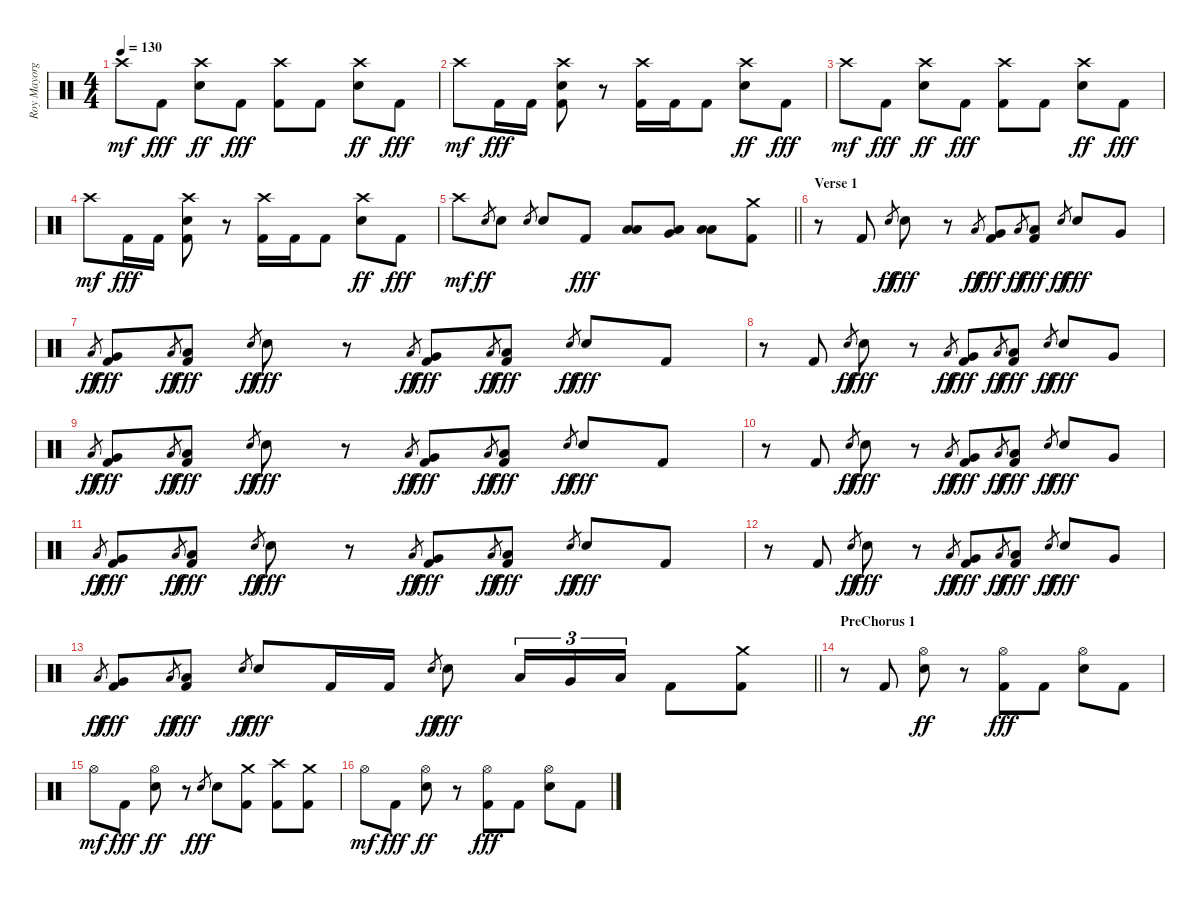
\track ("Roy Mayorga" "Roy Mayorg") {instrument percussion}
\staff {score}
\articulation defaults
\ts (4 4)
\tempo 130
\clef neutral
\ks c "Crash high (hit)".8{dy mf} "Kick (hit) 2".8{dy fff}
("Crash high (hit)" "Electric Snare (hit)").8{dy ff} "Kick (hit) 2".8{dy fff} ("Crash high (hit)" "Kick (hit) 2").8 "Kick (hit) 2".8 ("Crash high (hit)" "Electric Snare (hit)").8{dy ff} "Kick (hit) 2".8{dy fff} |
"Crash high (hit)".8{dy mf} "Kick (hit) 2".16{dy fff} "Kick (hit) 2".16 ("Crash high (hit)" "Electric Snare (hit)" "Kick (hit) 2").8 r.8 ("Crash high (hit)" "Kick (hit) 2").16 "Kick (hit) 2".16 "Kick (hit) 2".8 ("Crash high (hit)" "Electric Snare (hit)").8{dy ff} "Kick (hit) 2".8{dy fff} |
"Crash high (hit)".8{dy mf} "Kick (hit) 2".8{dy fff} ("Crash high (hit)" "Electric Snare (hit)").8{dy ff} "Kick (hit) 2".8{dy fff} ("Crash high (hit)" "Kick (hit) 2").8 "Kick (hit) 2".8 ("Crash high (hit)" "Electric Snare (hit)").8{dy ff} "Kick (hit) 2".8{dy fff} |
"Crash high (hit)".8{dy mf} "Kick (hit) 2".16{dy fff} "Kick (hit) 2".16 ("Crash high (hit)" "Electric Snare (hit)" "Kick (hit) 2").8 r.8 ("Crash high (hit)" "Kick (hit) 2").16 "Kick (hit) 2".16 "Kick (hit) 2".8 ("Crash high (hit)" "Electric Snare (hit)").8{dy ff} "Kick (hit) 2".8{dy fff} |
\barLineRight lightlight "Crash high (hit)".8{dy mf} "Electric Snare (hit)".8{gr dy ff} "Electric Snare (hit)".8 "Electric Snare (hit)".8{gr} "Electric Snare (hit)".8 "Kick (hit) 2".8{dy fff}
("Low Tom (hit)" "Low Floor Tom (hit)").8 ("Very Low Tom (hit)" "Low Floor Tom (hit)").8 ("Low Floor Tom (hit)" "Low Floor Tom (hit)").8 ("Crash medium (hit)" "Kick (hit) 2").8 |
\section ("" "Verse 1")
r.8 "Kick (hit) 2".8 "Electric Snare (hit)".8{gr dy ff} "Electric Snare (hit)".8{dy fff} r.8 "Low Floor Tom (hit)".8{gr dy ff} ("Very Low Tom (hit)" "Kick (hit) 2").8{dy fff} "Low Floor Tom (hit)".8{gr dy ff} ("Low Floor Tom (hit)" "Kick (hit) 2").8{dy fff} "Electric Snare (hit)".8{gr dy ff} "Electric Snare (hit)".8{dy fff} "Very Low Tom (hit)".8 |
"Low Floor Tom (hit)".8{gr dy ff} ("Very Low Tom (hit)" "Kick (hit) 2").8{dy fff} "Low Floor Tom (hit)".8{gr dy ff} ("Low Floor Tom (hit)" "Kick (hit) 2").8{dy fff} "Electric Snare (hit)".8{gr dy ff} "Electric Snare (hit)".8{dy fff} r.8 "Low Floor Tom (hit)".8{gr dy ff} ("Very Low Tom (hit)" "Kick (hit) 2").8{dy fff} "Low Floor Tom (hit)".8{gr dy ff} ("Low Floor Tom (hit)" "Kick (hit) 2").8{dy fff} "Electric Snare (hit)".8{gr dy ff} "Electric Snare (hit)".8{dy fff} "Kick (hit) 2".8 |
r.8 "Kick (hit) 2".8 "Electric Snare (hit)".8{gr dy ff} "Electric Snare (hit)".8{dy fff} r.8 "Low Floor Tom (hit)".8{gr dy ff} ("Very Low Tom (hit)" "Kick (hit) 2").8{dy fff} "Low Floor Tom (hit)".8{gr dy ff} ("Low Floor Tom (hit)" "Kick (hit) 2").8{dy fff} "Electric Snare (hit)".8{gr dy ff} "Electric Snare (hit)".8{dy fff} "Very Low Tom (hit)".8 |
"Low Floor Tom (hit)".8{gr dy ff} ("Very Low Tom (hit)" "Kick (hit) 2").8{dy fff} "Low Floor Tom (hit)".8{gr dy ff} ("Low Floor Tom (hit)" "Kick (hit) 2").8{dy fff} "Electric Snare (hit)".8{gr dy ff} "Electric Snare (hit)".8{dy fff} r.8 "Low Floor Tom (hit)".8{gr dy ff} ("Very Low Tom (hit)" "Kick (hit) 2").8{dy fff} "Low Floor Tom (hit)".8{gr dy ff} ("Low Floor Tom (hit)" "Kick (hit) 2").8{dy fff} "Electric Snare (hit)".8{gr dy ff} "Electric Snare (hit)".8{dy fff} "Kick (hit) 2".8 |
r.8 "Kick (hit) 2".8 "Electric Snare (hit)".8{gr dy ff} "Electric Snare (hit)".8{dy fff} r.8 "Low Floor Tom (hit)".8{gr dy ff} ("Very Low Tom (hit)" "Kick (hit) 2").8{dy fff} "Low Floor Tom (hit)".8{gr dy ff} ("Low Floor Tom (hit)" "Kick (hit) 2").8{dy fff} "Electric Snare (hit)".8{gr dy ff} "Electric Snare (hit)".8{dy fff} "Very Low Tom (hit)".8 |
"Low Floor Tom (hit)".8{gr dy ff} ("Very Low Tom (hit)" "Kick (hit) 2").8{dy fff} "Low Floor Tom (hit)".8{gr dy ff} ("Low Floor Tom (hit)" "Kick (hit) 2").8{dy fff} "Electric Snare (hit)".8{gr dy ff} "Electric Snare (hit)".8{dy fff} r.8 "Low Floor Tom (hit)".8{gr dy ff} ("Very Low Tom (hit)" "Kick (hit) 2").8{dy fff} "Low Floor Tom (hit)".8{gr dy ff} ("Low Floor Tom (hit)" "Kick (hit) 2").8{dy fff} "Electric Snare (hit)".8{gr dy ff} "Electric Snare (hit)".8{dy fff} "Kick (hit) 2".8 |
r.8 "Kick (hit) 2".8 "Electric Snare (hit)".8{gr dy ff} "Electric Snare (hit)".8{dy fff} r.8 "Low Floor Tom (hit)".8{gr dy ff} ("Very Low Tom (hit)" "Kick (hit) 2").8{dy fff} "Low Floor Tom (hit)".8{gr dy ff} ("Low Floor Tom (hit)" "Kick (hit) 2").8{dy fff} "Electric Snare (hit)".8{gr dy ff} "Electric Snare (hit)".8{dy fff} "Very Low Tom (hit)".8 |
\barLineRight lightlight "Low Floor Tom (hit)".8{gr dy ff}
("Very Low Tom (hit)" "Kick (hit) 2").8{dy fff} "Low Floor Tom (hit)".8{gr dy ff} ("Low Floor Tom (hit)" "Kick (hit) 2").8{dy fff} "Electric Snare (hit)".8{gr dy ff} "Electric Snare (hit)".8{dy fff} "Kick (hit) 2".16 "Kick (hit) 2".16 "Electric Snare (hit)".8{gr dy ff} "Electric Snare (hit)".8{dy fff} "Low Tom (hit)".16{tu (3 2)} "Very Low Tom (hit)".16{tu (3 2)} "Low Floor Tom (hit)".16{tu (3 2)} "Kick (hit) 2".8 ("Crash medium (hit)" "Kick (hit) 2").8 |
\section ("" "PreChorus 1")
r.8 "Kick (hit) 2".8 ("Hi-Hat (open)" "Electric Snare (hit)").8{dy ff} r.8 ("Hi-Hat (open)" "Kick (hit) 2").8{dy fff} "Kick (hit) 2".8 ("Hi-Hat (open)" "Electric Snare (hit)").8 "Kick (hit) 2".8 |
"Hi-Hat (open)".8{dy mf} "Kick (hit) 2".8{dy fff} ("Hi-Hat (open)" "Electric Snare (hit)").8{dy ff} r.8 "Electric Snare (hit)".8{gr dy fff} "Electric Snare (hit)".8 ("Crash medium (hit)" "Kick (hit) 2").8 ("Crash high (hit)" "Kick (hit) 2").8 ("Crash medium (hit)" "Kick (hit) 2").8 |
"Hi-Hat (open)".8{dy mf} "Kick (hit) 2".8{dy fff} ("Hi-Hat (open)" "Electric Snare (hit)").8{dy ff} r.8 ("Hi-Hat (open)" "Kick (hit) 2").8{dy fff} "Kick (hit) 2".8 ("Hi-Hat (open)" "Electric Snare (hit)").8 "Kick (hit) 2".8
